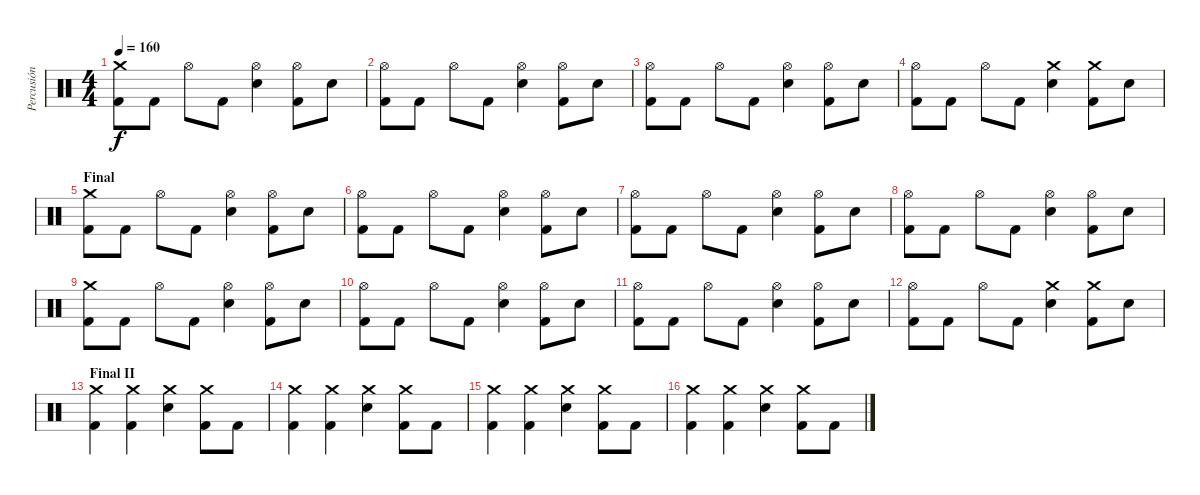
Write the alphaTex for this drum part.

\track ("Percusión" "Percusión") {instrument percussion}
\staff {score}
\articulation defaults
\ts (4 4)
\tempo 160
\clef neutral
\ks c
("Crash medium (hit)" "Kick (hit) 2").8{dy f} "Kick (hit) 2".8 "Hi-Hat (open)".8 "Kick (hit) 2".8 ("Hi-Hat (open)" "Snare (hit) 2").4 ("Hi-Hat (open)" "Kick (hit) 2").8 "Snare (hit) 2".8 |
("Hi-Hat (open)" "Kick (hit) 2").8 "Kick (hit) 2".8 "Hi-Hat (open)".8 "Kick (hit) 2".8 ("Hi-Hat (open)" "Snare (hit) 2").4 ("Hi-Hat (open)" "Kick (hit) 2").8 "Snare (hit) 2".8 |
("Hi-Hat (open)" "Kick (hit) 2").8 "Kick (hit) 2".8 "Hi-Hat (open)".8 "Kick (hit) 2".8 ("Hi-Hat (open)" "Snare (hit) 2").4 ("Hi-Hat (open)" "Kick (hit) 2").8 "Snare (hit) 2".8 |
("Hi-Hat (open)" "Kick (hit) 2").8 "Kick (hit) 2".8 "Hi-Hat (open)".8 "Kick (hit) 2".8 ("Crash medium (hit)" "Snare (hit) 2").4 ("Crash medium (hit)" "Kick (hit) 2").8 "Snare (hit) 2".8 |
\section ("" "Final")
("Crash medium (hit)" "Kick (hit) 2").8 "Kick (hit) 2".8 "Hi-Hat (open)".8 "Kick (hit) 2".8 ("Hi-Hat (open)" "Snare (hit) 2").4 ("Hi-Hat (open)" "Kick (hit) 2").8 "Snare (hit) 2".8 |
("Hi-Hat (open)" "Kick (hit) 2").8 "Kick (hit) 2".8 "Hi-Hat (open)".8 "Kick (hit) 2".8 ("Hi-Hat (open)" "Snare (hit) 2").4 ("Hi-Hat (open)" "Kick (hit) 2").8 "Snare (hit) 2".8 |
("Hi-Hat (open)" "Kick (hit) 2").8 "Kick (hit) 2".8 "Hi-Hat (open)".8 "Kick (hit) 2".8 ("Hi-Hat (open)" "Snare (hit) 2").4 ("Hi-Hat (open)" "Kick (hit) 2").8 "Snare (hit) 2".8 |
("Hi-Hat (open)" "Kick (hit) 2").8 "Kick (hit) 2".8 "Hi-Hat (open)".8 "Kick (hit) 2".8 ("Hi-Hat (open)" "Snare (hit) 2").4 ("Hi-Hat (open)" "Kick (hit) 2").8 "Snare (hit) 2".8 |
("Crash medium (hit)" "Kick (hit) 2").8 "Kick (hit) 2".8 "Hi-Hat (open)".8 "Kick (hit) 2".8 ("Hi-Hat (open)" "Snare (hit) 2").4 ("Hi-Hat (open)" "Kick (hit) 2").8 "Snare (hit) 2".8 |
("Hi-Hat (open)" "Kick (hit) 2").8 "Kick (hit) 2".8 "Hi-Hat (open)".8 "Kick (hit) 2".8 ("Hi-Hat (open)" "Snare (hit) 2").4 ("Hi-Hat (open)" "Kick (hit) 2").8 "Snare (hit) 2".8 |
("Hi-Hat (open)" "Kick (hit) 2").8 "Kick (hit) 2".8 "Hi-Hat (open)".8 "Kick (hit) 2".8 ("Hi-Hat (open)" "Snare (hit) 2").4 ("Hi-Hat (open)" "Kick (hit) 2").8 "Snare (hit) 2".8 |
("Hi-Hat (open)" "Kick (hit) 2").8 "Kick (hit) 2".8 "Hi-Hat (open)".8 "Kick (hit) 2".8 ("Crash medium (hit)" "Snare (hit) 2").4 ("Crash medium (hit)" "Kick (hit) 2").8 "Snare (hit) 2".8 |
\section ("" "Final II")
("Crash medium (hit)" "Kick (hit) 2").4 ("Crash medium (hit)" "Kick (hit) 2").4 ("Crash medium (hit)" "Snare (hit) 2").4 ("Crash medium (hit)" "Kick (hit) 2").8 "Kick (hit) 2".8 |
("Crash medium (hit)" "Kick (hit) 2").4 ("Crash medium (hit)" "Kick (hit) 2").4 ("Crash medium (hit)" "Snare (hit) 2").4 ("Crash medium (hit)" "Kick (hit) 2").8 "Kick (hit) 2".8 |
("Crash medium (hit)" "Kick (hit) 2").4 ("Crash medium (hit)" "Kick (hit) 2").4 ("Crash medium (hit)" "Snare (hit) 2").4 ("Crash medium (hit)" "Kick (hit) 2").8 "Kick (hit) 2".8 |
("Crash medium (hit)" "Kick (hit) 2").4 ("Crash medium (hit)" "Kick (hit) 2").4 ("Crash medium (hit)" "Snare (hit) 2").4 ("Crash medium (hit)" "Kick (hit) 2").8 "Kick (hit) 2".8
